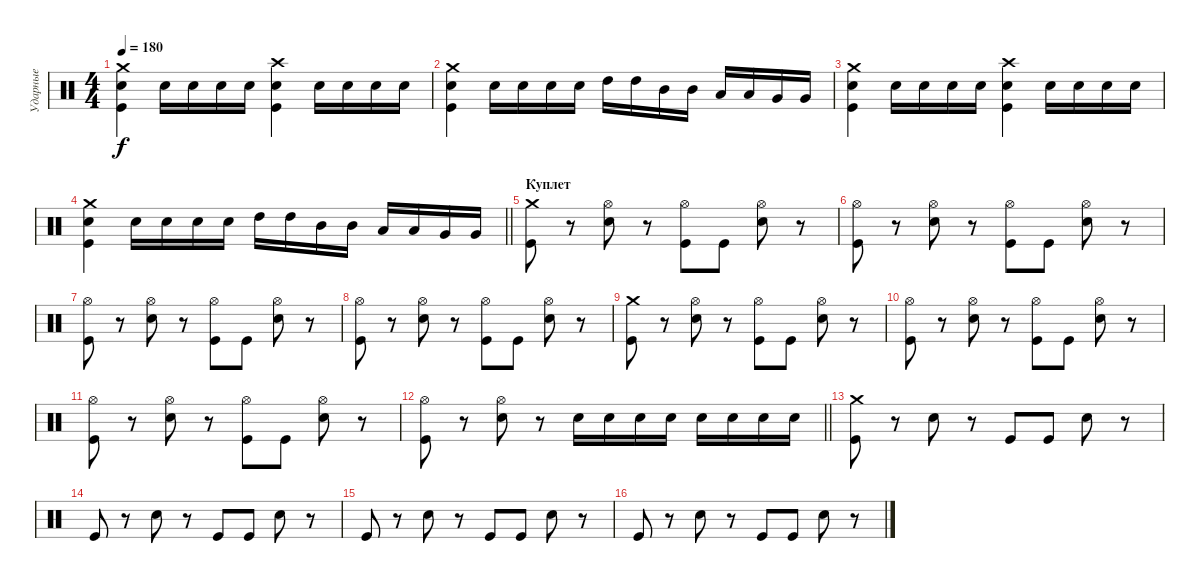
\track ("Ударные" "Ударные") {instrument percussion}
\staff {score}
\articulation defaults
\ts (4 4)
\tempo 180
\clef neutral
\ks c
("Crash medium (hit)" "Kick (hit)" "Electric Snare (hit)").4{dy f} "Electric Snare (hit)".16 "Electric Snare (hit)".16 "Electric Snare (hit)".16 "Electric Snare (hit)".16 ("Crash high (hit)" "Kick (hit)" "Electric Snare (hit)").4 "Electric Snare (hit)".16 "Electric Snare (hit)".16 "Electric Snare (hit)".16 "Electric Snare (hit)".16 |
("Crash medium (hit)" "Kick (hit)" "Electric Snare (hit)").4 "Electric Snare (hit)".16 "Electric Snare (hit)".16 "Electric Snare (hit)".16 "Electric Snare (hit)".16 "High Tom (hit)".16 "High Tom (hit)".16 "Mid Tom (hit)".16 "Mid Tom (hit)".16 "Low Tom (hit)".16 "Low Tom (hit)".16 "Very Low Tom (hit)".16 "Very Low Tom (hit)".16 |
("Crash medium (hit)" "Kick (hit)" "Electric Snare (hit)").4 "Electric Snare (hit)".16 "Electric Snare (hit)".16 "Electric Snare (hit)".16 "Electric Snare (hit)".16 ("Crash high (hit)" "Kick (hit)" "Electric Snare (hit)").4 "Electric Snare (hit)".16 "Electric Snare (hit)".16 "Electric Snare (hit)".16 "Electric Snare (hit)".16 |
\barLineRight lightlight
("Crash medium (hit)" "Kick (hit)" "Electric Snare (hit)").4 "Electric Snare (hit)".16 "Electric Snare (hit)".16 "Electric Snare (hit)".16 "Electric Snare (hit)".16 "High Tom (hit)".16 "High Tom (hit)".16 "Mid Tom (hit)".16 "Mid Tom (hit)".16 "Low Tom (hit)".16 "Low Tom (hit)".16 "Very Low Tom (hit)".16 "Very Low Tom (hit)".16 |
\section ("" "Куплет")
("Crash medium (hit)" "Kick (hit)").8 r.8 ("Hi-Hat (open)" "Electric Snare (hit)").8 r.8 ("Hi-Hat (open)" "Kick (hit)").8 "Kick (hit)".8 ("Hi-Hat (open)" "Electric Snare (hit)").8 r.8 |
("Hi-Hat (open)" "Kick (hit)").8 r.8 ("Hi-Hat (open)" "Electric Snare (hit)").8 r.8 ("Hi-Hat (open)" "Kick (hit)").8 "Kick (hit)".8 ("Hi-Hat (open)" "Electric Snare (hit)").8 r.8 |
("Hi-Hat (open)" "Kick (hit)").8 r.8 ("Hi-Hat (open)" "Electric Snare (hit)").8 r.8 ("Hi-Hat (open)" "Kick (hit)").8 "Kick (hit)".8 ("Hi-Hat (open)" "Electric Snare (hit)").8 r.8 |
("Hi-Hat (open)" "Kick (hit)").8 r.8 ("Hi-Hat (open)" "Electric Snare (hit)").8 r.8 ("Hi-Hat (open)" "Kick (hit)").8 "Kick (hit)".8 ("Hi-Hat (open)" "Electric Snare (hit)").8 r.8 |
("Crash medium (hit)" "Kick (hit)").8 r.8 ("Hi-Hat (open)" "Electric Snare (hit)").8 r.8 ("Hi-Hat (open)" "Kick (hit)").8 "Kick (hit)".8 ("Hi-Hat (open)" "Electric Snare (hit)").8 r.8 |
("Hi-Hat (open)" "Kick (hit)").8 r.8 ("Hi-Hat (open)" "Electric Snare (hit)").8 r.8 ("Hi-Hat (open)" "Kick (hit)").8 "Kick (hit)".8 ("Hi-Hat (open)" "Electric Snare (hit)").8 r.8 |
("Hi-Hat (open)" "Kick (hit)").8 r.8 ("Hi-Hat (open)" "Electric Snare (hit)").8 r.8 ("Hi-Hat (open)" "Kick (hit)").8 "Kick (hit)".8 ("Hi-Hat (open)" "Electric Snare (hit)").8 r.8 |
\barLineRight lightlight
("Hi-Hat (open)" "Kick (hit)").8 r.8 ("Hi-Hat (open)" "Electric Snare (hit)").8 r.8 "Electric Snare (hit)".16 "Electric Snare (hit)".16 "Electric Snare (hit)".16 "Electric Snare (hit)".16 "Electric Snare (hit)".16 "Electric Snare (hit)".16 "Electric Snare (hit)".16 "Electric Snare (hit)".16 |
\section ("" " ")
("Crash medium (hit)" "Kick (hit)").8 r.8 "Electric Snare (hit)".8 r.8 "Kick (hit)".8 "Kick (hit)".8 "Electric Snare (hit)".8 r.8 |
"Kick (hit)".8 r.8 "Electric Snare (hit)".8 r.8 "Kick (hit)".8 "Kick (hit)".8 "Electric Snare (hit)".8 r.8 |
"Kick (hit)".8 r.8 "Electric Snare (hit)".8 r.8 "Kick (hit)".8 "Kick (hit)".8 "Electric Snare (hit)".8 r.8 |
"Kick (hit)".8 r.8 "Electric Snare (hit)".8 r.8 "Kick (hit)".8 "Kick (hit)".8 "Electric Snare (hit)".8 r.8
